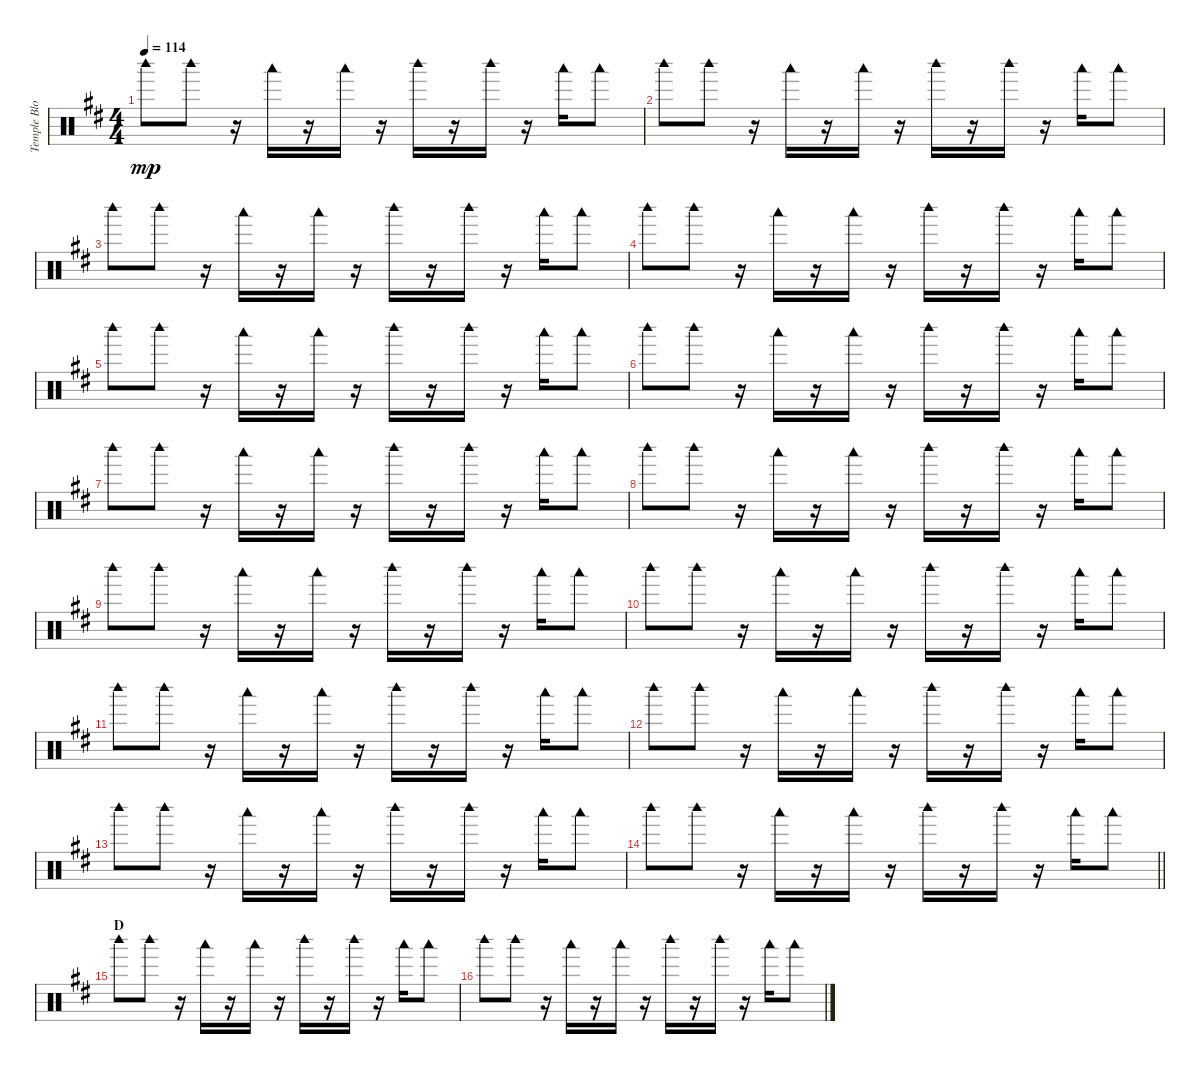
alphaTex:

\track ("Temple Block" "Temple Blo") {instrument percussion}
\staff {score}
\articulation defaults
\ts (4 4)
\tempo 114
\clef neutral
\ks d "Woodblock high (hit)".8{dy mp} "Woodblock high (hit)".8
r.16 "Woodblock low (hit)".16 r.16 "Woodblock low (hit)".16 r.16 "Woodblock high (hit)".16 r.16 "Woodblock high (hit)".16 r.16 "Woodblock low (hit)".16 "Woodblock low (hit)".8 |
"Woodblock high (hit)".8 "Woodblock high (hit)".8 r.16 "Woodblock low (hit)".16 r.16 "Woodblock low (hit)".16 r.16 "Woodblock high (hit)".16 r.16 "Woodblock high (hit)".16 r.16 "Woodblock low (hit)".16 "Woodblock low (hit)".8 |
"Woodblock high (hit)".8 "Woodblock high (hit)".8 r.16 "Woodblock low (hit)".16 r.16 "Woodblock low (hit)".16 r.16 "Woodblock high (hit)".16 r.16 "Woodblock high (hit)".16 r.16 "Woodblock low (hit)".16 "Woodblock low (hit)".8 |
"Woodblock high (hit)".8 "Woodblock high (hit)".8 r.16 "Woodblock low (hit)".16 r.16 "Woodblock low (hit)".16 r.16 "Woodblock high (hit)".16 r.16 "Woodblock high (hit)".16 r.16 "Woodblock low (hit)".16 "Woodblock low (hit)".8 |
"Woodblock high (hit)".8 "Woodblock high (hit)".8 r.16 "Woodblock low (hit)".16 r.16 "Woodblock low (hit)".16 r.16 "Woodblock high (hit)".16 r.16 "Woodblock high (hit)".16 r.16 "Woodblock low (hit)".16 "Woodblock low (hit)".8 |
"Woodblock high (hit)".8 "Woodblock high (hit)".8 r.16 "Woodblock low (hit)".16 r.16 "Woodblock low (hit)".16 r.16 "Woodblock high (hit)".16 r.16 "Woodblock high (hit)".16 r.16 "Woodblock low (hit)".16 "Woodblock low (hit)".8 |
"Woodblock high (hit)".8 "Woodblock high (hit)".8 r.16 "Woodblock low (hit)".16 r.16 "Woodblock low (hit)".16 r.16 "Woodblock high (hit)".16 r.16 "Woodblock high (hit)".16 r.16 "Woodblock low (hit)".16 "Woodblock low (hit)".8 |
"Woodblock high (hit)".8 "Woodblock high (hit)".8 r.16 "Woodblock low (hit)".16 r.16 "Woodblock low (hit)".16 r.16 "Woodblock high (hit)".16 r.16 "Woodblock high (hit)".16 r.16 "Woodblock low (hit)".16 "Woodblock low (hit)".8 |
"Woodblock high (hit)".8 "Woodblock high (hit)".8 r.16 "Woodblock low (hit)".16 r.16 "Woodblock low (hit)".16 r.16 "Woodblock high (hit)".16 r.16 "Woodblock high (hit)".16 r.16 "Woodblock low (hit)".16 "Woodblock low (hit)".8 |
"Woodblock high (hit)".8 "Woodblock high (hit)".8 r.16 "Woodblock low (hit)".16 r.16 "Woodblock low (hit)".16 r.16 "Woodblock high (hit)".16 r.16 "Woodblock high (hit)".16 r.16 "Woodblock low (hit)".16 "Woodblock low (hit)".8 |
"Woodblock high (hit)".8 "Woodblock high (hit)".8 r.16 "Woodblock low (hit)".16 r.16 "Woodblock low (hit)".16 r.16 "Woodblock high (hit)".16 r.16 "Woodblock high (hit)".16 r.16 "Woodblock low (hit)".16 "Woodblock low (hit)".8 |
"Woodblock high (hit)".8 "Woodblock high (hit)".8 r.16 "Woodblock low (hit)".16 r.16 "Woodblock low (hit)".16 r.16 "Woodblock high (hit)".16 r.16 "Woodblock high (hit)".16 r.16 "Woodblock low (hit)".16 "Woodblock low (hit)".8 |
"Woodblock high (hit)".8 "Woodblock high (hit)".8 r.16 "Woodblock low (hit)".16 r.16 "Woodblock low (hit)".16 r.16 "Woodblock high (hit)".16 r.16 "Woodblock high (hit)".16 r.16 "Woodblock low (hit)".16 "Woodblock low (hit)".8 |
\barLineRight lightlight "Woodblock high (hit)".8 "Woodblock high (hit)".8
r.16 "Woodblock low (hit)".16 r.16 "Woodblock low (hit)".16 r.16 "Woodblock high (hit)".16 r.16 "Woodblock high (hit)".16 r.16 "Woodblock low (hit)".16 "Woodblock low (hit)".8 |
\section ("" "D")
"Woodblock high (hit)".8 "Woodblock high (hit)".8 r.16 "Woodblock low (hit)".16 r.16 "Woodblock low (hit)".16 r.16 "Woodblock high (hit)".16 r.16 "Woodblock high (hit)".16 r.16 "Woodblock low (hit)".16 "Woodblock low (hit)".8 |
"Woodblock high (hit)".8 "Woodblock high (hit)".8 r.16 "Woodblock low (hit)".16 r.16 "Woodblock low (hit)".16 r.16 "Woodblock high (hit)".16 r.16 "Woodblock high (hit)".16 r.16 "Woodblock low (hit)".16 "Woodblock low (hit)".8
